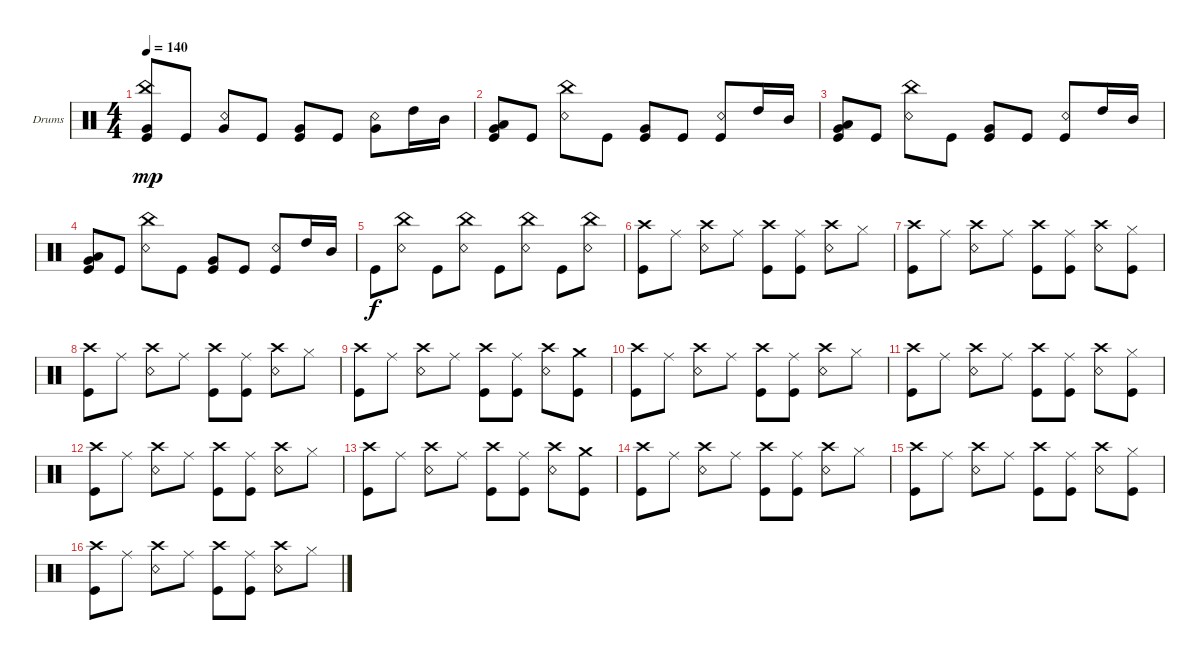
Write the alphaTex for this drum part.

\bracketExtendMode groupsimilarinstruments
\firstSystemTrackNameOrientation horizontal
\otherSystemsTrackNameOrientation horizontal
\track ("Drumkit" "Drums") {instrument percussion}
\staff {score}
\articulation defaults
\ts (4 4)
\tempo 140
\clef neutral
\ks c
("Kick (hit)" "China (hit)" "Very Low Tom (hit)").8{dy mp} "Kick (hit)".8 ("Snare (rim shot)" "Very Low Tom (hit)").8 "Kick (hit)".8 ("Kick (hit)" "Very Low Tom (hit)").8 "Kick (hit)".8 ("Snare (rim shot)" "Very Low Tom (hit)").8 "High Tom (hit)".16 "Mid Tom (hit)".16 |
("Kick (hit)" "Very Low Tom (hit)" "Low Tom (hit)").8 "Kick (hit)".8 ("Snare (rim shot)" "China (hit)").8 "Kick (hit)".8 ("Kick (hit)" "Very Low Tom (hit)").8 "Kick (hit)".8 ("Snare (rim shot)" "Kick (hit)").8 "High Tom (hit)".16 "Mid Tom (hit)".16 |
("Kick (hit)" "Very Low Tom (hit)" "Low Tom (hit)").8 "Kick (hit)".8 ("Snare (rim shot)" "China (hit)").8 "Kick (hit)".8 ("Kick (hit)" "Very Low Tom (hit)").8 "Kick (hit)".8 ("Snare (rim shot)" "Kick (hit)").8 "High Tom (hit)".16 "Mid Tom (hit)".16 |
("Kick (hit)" "Very Low Tom (hit)" "Low Tom (hit)").8 "Kick (hit)".8 ("Snare (rim shot)" "China (hit)").8 "Kick (hit)".8 ("Kick (hit)" "Very Low Tom (hit)").8 "Kick (hit)".8 ("Snare (rim shot)" "Kick (hit)").8 "High Tom (hit)".16 "Mid Tom (hit)".16 |
"Kick (hit)".8{dy f} ("Snare (rim shot)" "China (hit)").8 "Kick (hit)".8 ("Snare (rim shot)" "China (hit)").8 "Kick (hit)".8 ("Snare (rim shot)" "China (hit)").8 "Kick (hit)".8 ("Snare (rim shot)" "China (hit)").8 |
("Kick (hit)" "Crash high (hit)").8 "Ride (middle)".8 ("Crash high (hit)" "Snare (rim shot)").8 "Ride (middle)".8 ("Crash high (hit)" "Kick (hit)").8 ("Kick (hit)" "Ride (middle)").8 ("Crash high (hit)" "Snare (rim shot)").8 "Hi-Hat (closed)".8 |
("Kick (hit)" "Crash high (hit)").8 "Ride (middle)".8 ("Crash high (hit)" "Snare (rim shot)").8 "Ride (middle)".8 ("Crash high (hit)" "Kick (hit)").8 ("Kick (hit)" "Ride (middle)").8 ("Crash high (hit)" "Snare (rim shot)").8 ("Hi-Hat (closed)" "Kick (hit)").8 |
("Kick (hit)" "Crash high (hit)").8 "Ride (middle)".8 ("Crash high (hit)" "Snare (rim shot)").8 "Ride (middle)".8 ("Crash high (hit)" "Kick (hit)").8 ("Kick (hit)" "Ride (middle)").8 ("Crash high (hit)" "Snare (rim shot)").8 "Hi-Hat (closed)".8 |
("Kick (hit)" "Crash high (hit)").8 "Ride (middle)".8 ("Crash high (hit)" "Snare (rim shot)").8 "Ride (middle)".8 ("Crash high (hit)" "Kick (hit)").8 ("Kick (hit)" "Ride (middle)").8 ("Crash high (hit)" "Snare (rim shot)").8 ("Kick (hit)" "Crash medium (hit)").8 |
("Kick (hit)" "Crash high (hit)").8 "Ride (middle)".8 ("Crash high (hit)" "Snare (rim shot)").8 "Ride (middle)".8 ("Crash high (hit)" "Kick (hit)").8 ("Kick (hit)" "Ride (middle)").8 ("Crash high (hit)" "Snare (rim shot)").8 "Hi-Hat (closed)".8 |
("Kick (hit)" "Crash high (hit)").8 "Ride (middle)".8 ("Crash high (hit)" "Snare (rim shot)").8 "Ride (middle)".8 ("Crash high (hit)" "Kick (hit)").8 ("Kick (hit)" "Ride (middle)").8 ("Crash high (hit)" "Snare (rim shot)").8 ("Hi-Hat (closed)" "Kick (hit)").8 |
("Kick (hit)" "Crash high (hit)").8 "Ride (middle)".8 ("Crash high (hit)" "Snare (rim shot)").8 "Ride (middle)".8 ("Crash high (hit)" "Kick (hit)").8 ("Kick (hit)" "Ride (middle)").8 ("Crash high (hit)" "Snare (rim shot)").8 "Hi-Hat (closed)".8 |
("Kick (hit)" "Crash high (hit)").8 "Ride (middle)".8 ("Crash high (hit)" "Snare (rim shot)").8 "Ride (middle)".8 ("Crash high (hit)" "Kick (hit)").8 ("Kick (hit)" "Ride (middle)").8 ("Crash high (hit)" "Snare (rim shot)").8 ("Kick (hit)" "Crash medium (hit)").8 |
("Kick (hit)" "Crash high (hit)").8 "Ride (middle)".8 ("Crash high (hit)" "Snare (rim shot)").8 "Ride (middle)".8 ("Crash high (hit)" "Kick (hit)").8 ("Kick (hit)" "Ride (middle)").8 ("Crash high (hit)" "Snare (rim shot)").8 "Hi-Hat (closed)".8 |
("Kick (hit)" "Crash high (hit)").8 "Ride (middle)".8 ("Crash high (hit)" "Snare (rim shot)").8 "Ride (middle)".8 ("Crash high (hit)" "Kick (hit)").8 ("Kick (hit)" "Ride (middle)").8 ("Crash high (hit)" "Snare (rim shot)").8 ("Hi-Hat (closed)" "Kick (hit)").8 |
("Kick (hit)" "Crash high (hit)").8 "Ride (middle)".8 ("Crash high (hit)" "Snare (rim shot)").8 "Ride (middle)".8 ("Crash high (hit)" "Kick (hit)").8 ("Kick (hit)" "Ride (middle)").8 ("Crash high (hit)" "Snare (rim shot)").8 "Hi-Hat (closed)".8
